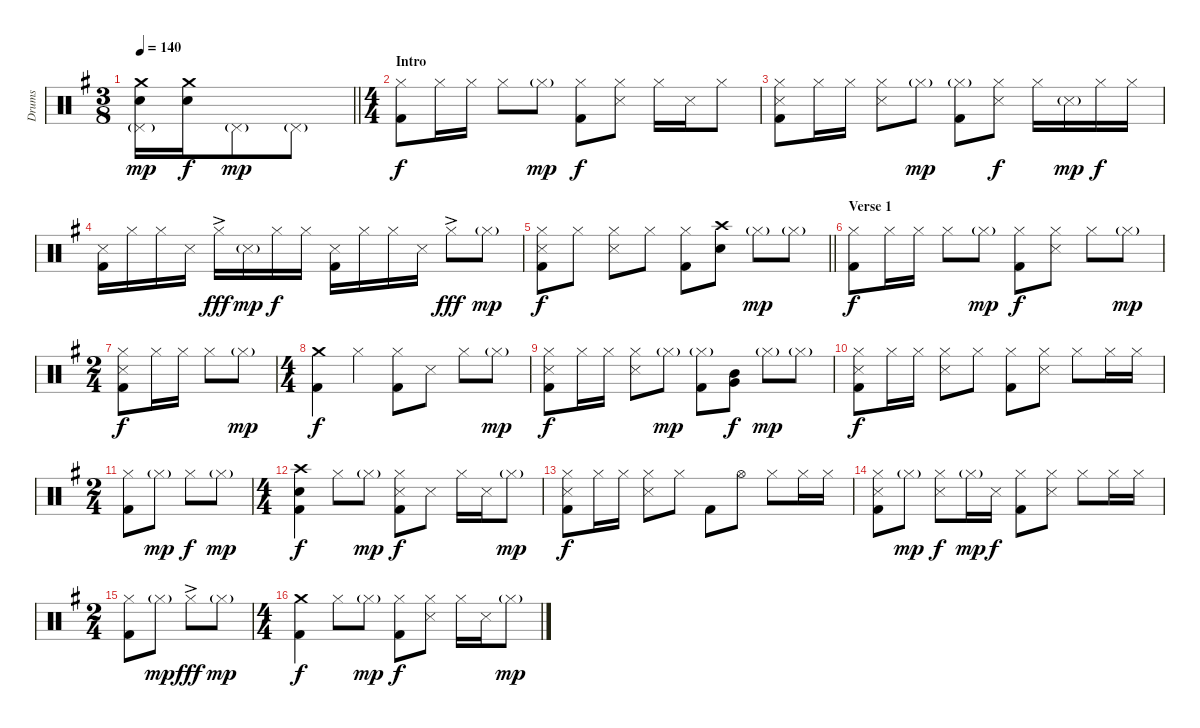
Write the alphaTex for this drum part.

\track ("Drums" "Drums") {instrument percussion}
\staff {score}
\articulation defaults
\ts (3 8)
\tempo 140
\clef neutral
\barLineRight lightlight
\ks g
("Crash medium (hit)" "Pedal Hi-Hat (hit)"{g} "Electric Snare (hit)").16{dy mp} ("Crash medium (hit)" "Electric Snare (hit)").16{dy f} "Pedal Hi-Hat (hit)"{g}.8{dy mp} "Pedal Hi-Hat (hit)"{g}.8 |
\ts (4 4)
\section ("" "Intro")
("Hi-Hat (closed)" "Kick (hit) 2").8{dy f} "Hi-Hat (closed)".16 "Hi-Hat (closed)".16 "Hi-Hat (closed)".8 "Hi-Hat (closed)"{g}.8{dy mp} ("Hi-Hat (closed)" "Kick (hit) 2").8{dy f} ("Hi-Hat (closed)" "Snare (side stick) 3").8 "Hi-Hat (closed)".16 "Snare (side stick) 3".16 "Hi-Hat (closed)".8 |
("Hi-Hat (closed)" "Snare (side stick) 3" "Kick (hit) 2").8 "Hi-Hat (closed)".16 "Hi-Hat (closed)".16 ("Hi-Hat (closed)" "Snare (side stick) 3").8 "Hi-Hat (closed)"{g}.8{dy mp} ("Hi-Hat (closed)"{g} "Kick (hit) 2").8 ("Hi-Hat (closed)" "Snare (side stick) 3").8{dy f} "Hi-Hat (closed)".16 "Snare (side stick) 3"{g}.16{dy mp} "Hi-Hat (closed)".16{dy f} "Hi-Hat (closed)".16 |
("Snare (side stick) 3" "Kick (hit) 2").16 "Hi-Hat (closed)".16 "Hi-Hat (closed)".16 "Snare (side stick) 3".16 "Hi-Hat (closed)"{ac}.16{dy fff} "Snare (side stick) 3"{g}.16{dy mp} "Hi-Hat (closed)".16{dy f} "Hi-Hat (closed)".16 ("Snare (side stick) 3" "Kick (hit) 2").16 "Hi-Hat (closed)".16 "Hi-Hat (closed)".16 "Snare (side stick) 3".16 "Hi-Hat (closed)"{ac}.8{dy fff} "Hi-Hat (closed)"{g}.8{dy mp} |
\barLineRight lightlight
("Hi-Hat (closed)" "Snare (side stick) 3" "Kick (hit) 2").8{dy f} "Hi-Hat (closed)".8 ("Hi-Hat (closed)" "Snare (side stick) 3").8 "Hi-Hat (closed)".8 ("Hi-Hat (closed)" "Kick (hit) 2").8 ("Crash high (hit)" "Electric Snare (hit)").8 "Hi-Hat (closed)"{g}.8{dy mp} "Hi-Hat (closed)"{g}.8 |
\section ("" "Verse 1")
("Hi-Hat (closed)" "Kick (hit) 2").8{dy f} "Hi-Hat (closed)".16 "Hi-Hat (closed)".16 "Hi-Hat (closed)".8 "Hi-Hat (closed)"{g}.8{dy mp} ("Hi-Hat (closed)" "Kick (hit) 2").8{dy f} ("Hi-Hat (closed)" "Snare (side stick) 3").8 "Hi-Hat (closed)".8 "Hi-Hat (closed)"{g}.8{dy mp} |
\ts (2 4)
("Hi-Hat (closed)" "Snare (side stick) 3" "Kick (hit) 2").8{dy f} "Hi-Hat (closed)".16 "Hi-Hat (closed)".16 "Hi-Hat (closed)".8 "Hi-Hat (closed)"{g}.8{dy mp} |
\ts (4 4)
("Crash medium (hit)" "Kick (hit) 2").4{dy f} "Hi-Hat (closed)".4 ("Hi-Hat (closed)" "Kick (hit) 2").8 "Snare (side stick) 3".8 "Hi-Hat (closed)".8 "Hi-Hat (closed)"{g}.8{dy mp} |
("Hi-Hat (closed)" "Snare (side stick) 3" "Kick (hit) 2").8{dy f} "Hi-Hat (closed)".16 "Hi-Hat (closed)".16 ("Hi-Hat (closed)" "Snare (side stick) 3").8 "Hi-Hat (closed)"{g}.8{dy mp} ("Hi-Hat (closed)"{g} "Kick (hit) 2").8 ("Mid Tom (hit)" "Very Low Tom (hit)").8{bu 240 dy f} "Hi-Hat (closed)"{g}.8{dy mp} "Hi-Hat (closed)"{g}.8 |
("Hi-Hat (closed)" "Snare (side stick) 3" "Kick (hit) 2").8{dy f} "Hi-Hat (closed)".16 "Hi-Hat (closed)".16 ("Hi-Hat (closed)" "Snare (side stick) 3").8 "Hi-Hat (closed)".8 ("Hi-Hat (closed)" "Kick (hit) 2").8 ("Hi-Hat (closed)" "Snare (side stick) 3").8 "Hi-Hat (closed)".8 "Hi-Hat (closed)".16 "Hi-Hat (closed)".16 |
\ts (2 4)
("Hi-Hat (closed)" "Kick (hit) 2").8 "Hi-Hat (closed)"{g}.8{dy mp} "Hi-Hat (closed)".8{dy f} "Hi-Hat (closed)"{g}.8{dy mp} |
\ts (4 4)
("Crash high (hit)" "Electric Snare (hit)" "Kick (hit) 2").4{dy f} "Hi-Hat (closed)".8 "Hi-Hat (closed)"{g}.8{dy mp} ("Hi-Hat (closed)" "Snare (side stick) 3" "Kick (hit) 2").8{dy f} "Snare (side stick) 3".8 "Hi-Hat (closed)".16 "Snare (side stick) 3".16 "Hi-Hat (closed)"{g}.8{dy mp} |
("Hi-Hat (closed)" "Snare (side stick) 3" "Kick (hit) 2").8{dy f} "Hi-Hat (closed)".16 "Hi-Hat (closed)".16 ("Hi-Hat (closed)" "Snare (side stick) 3").8 "Hi-Hat (closed)".8 "Kick (hit) 2".8 "Hi-Hat (open)".8 "Hi-Hat (closed)".8 "Hi-Hat (closed)".16 "Hi-Hat (closed)".16 |
("Hi-Hat (closed)" "Snare (side stick) 3" "Kick (hit) 2").8 "Hi-Hat (closed)"{g}.8{dy mp} ("Hi-Hat (closed)" "Snare (side stick) 3").8{dy f} "Hi-Hat (closed)"{g}.16{dy mp} "Snare (side stick) 3".16{dy f} ("Hi-Hat (closed)" "Kick (hit) 2").8 ("Hi-Hat (closed)" "Snare (side stick) 3").8 "Hi-Hat (closed)".8 "Hi-Hat (closed)".16 "Hi-Hat (closed)".16 |
\ts (2 4)
("Hi-Hat (closed)" "Kick (hit) 2").8 "Hi-Hat (closed)"{g}.8{dy mp} "Hi-Hat (closed)"{ac}.8{dy fff} "Hi-Hat (closed)"{g}.8{dy mp} |
\ts (4 4)
("Crash medium (hit)" "Kick (hit) 2").4{dy f} "Hi-Hat (closed)".8 "Hi-Hat (closed)"{g}.8{dy mp} ("Hi-Hat (closed)" "Kick (hit) 2").8{dy f} ("Hi-Hat (closed)" "Snare (side stick) 3").8 "Hi-Hat (closed)".16 "Snare (side stick) 3".16 "Hi-Hat (closed)"{g}.8{dy mp}
